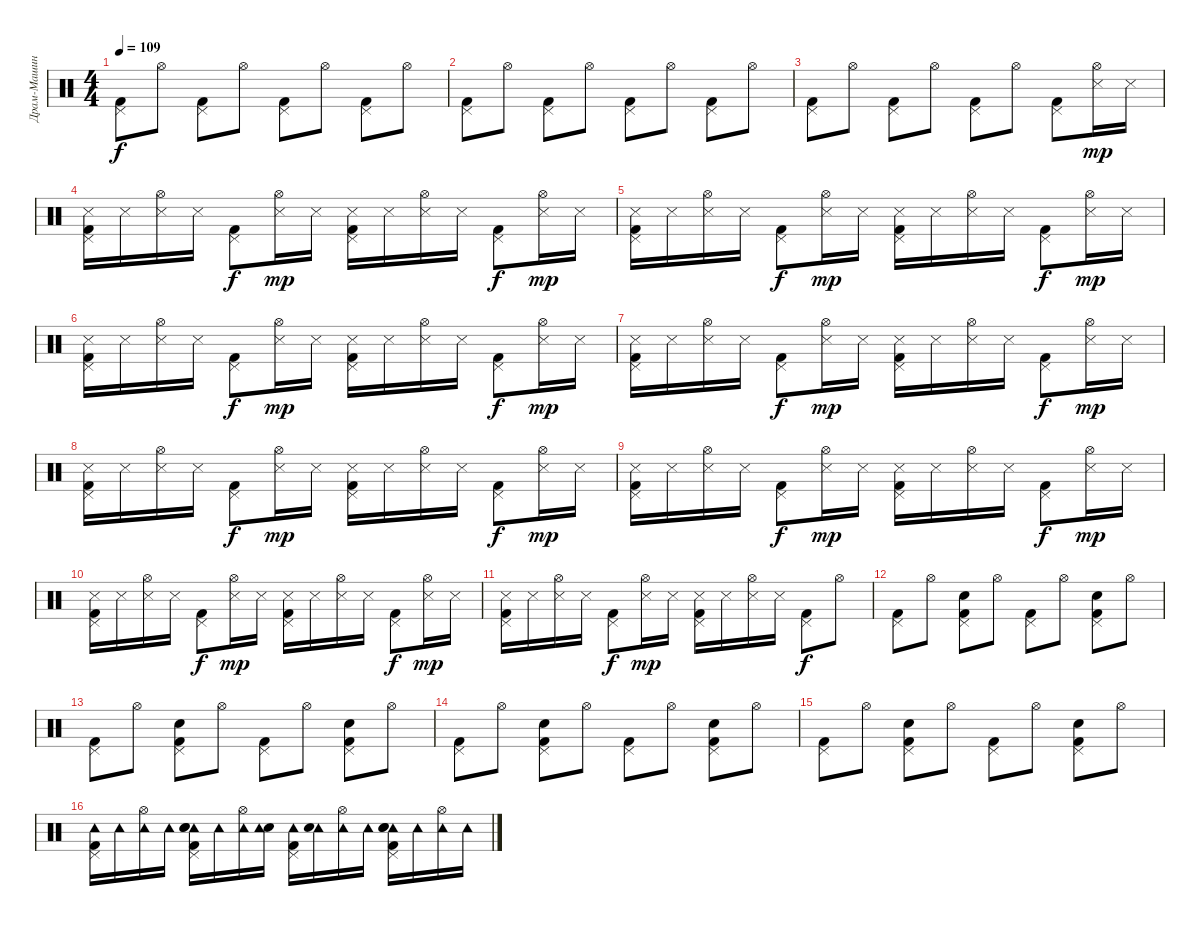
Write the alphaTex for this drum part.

\track ("Драм-Машина" "Драм-Машин") {instrument percussion}
\staff {score}
\articulation defaults
\ts (4 4)
\tempo 109
\clef neutral
\ks c
("Kick (hit) 2" "Pedal Hi-Hat (hit)").8{dy f} "Hi-Hat (open)".8 ("Pedal Hi-Hat (hit)" "Kick (hit) 2").8 "Hi-Hat (open)".8 ("Pedal Hi-Hat (hit)" "Kick (hit) 2").8 "Hi-Hat (open)".8 ("Pedal Hi-Hat (hit)" "Kick (hit) 2").8 "Hi-Hat (open)".8 |
("Kick (hit) 2" "Pedal Hi-Hat (hit)").8 "Hi-Hat (open)".8 ("Kick (hit) 2" "Pedal Hi-Hat (hit)").8 "Hi-Hat (open)".8 ("Kick (hit) 2" "Pedal Hi-Hat (hit)").8 "Hi-Hat (open)".8 ("Kick (hit) 2" "Pedal Hi-Hat (hit)").8 "Hi-Hat (open)".8 |
("Pedal Hi-Hat (hit)" "Kick (hit) 2").8 "Hi-Hat (open)".8 ("Pedal Hi-Hat (hit)" "Kick (hit) 2").8 "Hi-Hat (open)".8 ("Pedal Hi-Hat (hit)" "Kick (hit) 2").8 "Hi-Hat (open)".8 ("Pedal Hi-Hat (hit)" "Kick (hit) 2").8 ("Hi-Hat (open)" "Snare (side stick) 3").16{dy mp} "Snare (side stick) 3".16 |
("Snare (side stick) 3" "Pedal Hi-Hat (hit)" "Kick (hit) 2").16 "Snare (side stick) 3".16 ("Snare (side stick) 3" "Hi-Hat (open)").16 "Snare (side stick) 3".16 ("Pedal Hi-Hat (hit)" "Kick (hit) 2").8{dy f} ("Snare (side stick) 3" "Hi-Hat (open)").16{dy mp} "Snare (side stick) 3".16 ("Pedal Hi-Hat (hit)" "Kick (hit) 2" "Snare (side stick) 3").16 "Snare (side stick) 3".16 ("Hi-Hat (open)" "Snare (side stick) 3").16 "Snare (side stick) 3".16 ("Pedal Hi-Hat (hit)" "Kick (hit) 2").8{dy f} ("Snare (side stick) 3" "Hi-Hat (open)").16{dy mp} "Snare (side stick) 3".16 |
("Snare (side stick) 3" "Pedal Hi-Hat (hit)" "Kick (hit) 2").16 "Snare (side stick) 3".16 ("Hi-Hat (open)" "Snare (side stick) 3").16 "Snare (side stick) 3".16 ("Pedal Hi-Hat (hit)" "Kick (hit) 2").8{dy f} ("Hi-Hat (open)" "Snare (side stick) 3").16{dy mp} "Snare (side stick) 3".16 ("Pedal Hi-Hat (hit)" "Snare (side stick) 3" "Kick (hit) 2").16 "Snare (side stick) 3".16 ("Snare (side stick) 3" "Hi-Hat (open)").16 "Snare (side stick) 3".16 ("Kick (hit) 2" "Pedal Hi-Hat (hit)").8{dy f} ("Snare (side stick) 3" "Hi-Hat (open)").16{dy mp} "Snare (side stick) 3".16 |
("Kick (hit) 2" "Pedal Hi-Hat (hit)" "Snare (side stick) 3").16 "Snare (side stick) 3".16 ("Hi-Hat (open)" "Snare (side stick) 3").16 "Snare (side stick) 3".16 ("Pedal Hi-Hat (hit)" "Kick (hit) 2").8{dy f} ("Hi-Hat (open)" "Snare (side stick) 3").16{dy mp} "Snare (side stick) 3".16 ("Kick (hit) 2" "Snare (side stick) 3" "Pedal Hi-Hat (hit)").16 "Snare (side stick) 3".16 ("Hi-Hat (open)" "Snare (side stick) 3").16 "Snare (side stick) 3".16 ("Kick (hit) 2" "Pedal Hi-Hat (hit)").8{dy f} ("Hi-Hat (open)" "Snare (side stick) 3").16{dy mp} "Snare (side stick) 3".16 |
("Kick (hit) 2" "Snare (side stick) 3" "Pedal Hi-Hat (hit)").16 "Snare (side stick) 3".16 ("Snare (side stick) 3" "Hi-Hat (open)").16 "Snare (side stick) 3".16 ("Pedal Hi-Hat (hit)" "Kick (hit) 2").8{dy f} ("Hi-Hat (open)" "Snare (side stick) 3").16{dy mp} "Snare (side stick) 3".16 ("Snare (side stick) 3" "Kick (hit) 2" "Pedal Hi-Hat (hit)").16 "Snare (side stick) 3".16 ("Snare (side stick) 3" "Hi-Hat (open)").16 "Snare (side stick) 3".16 ("Pedal Hi-Hat (hit)" "Kick (hit) 2").8{dy f} ("Hi-Hat (open)" "Snare (side stick) 3").16{dy mp} "Snare (side stick) 3".16 |
("Snare (side stick) 3" "Pedal Hi-Hat (hit)" "Kick (hit) 2").16 "Snare (side stick) 3".16 ("Hi-Hat (open)" "Snare (side stick) 3").16 "Snare (side stick) 3".16 ("Kick (hit) 2" "Pedal Hi-Hat (hit)").8{dy f} ("Snare (side stick) 3" "Hi-Hat (open)").16{dy mp} "Snare (side stick) 3".16 ("Pedal Hi-Hat (hit)" "Snare (side stick) 3" "Kick (hit) 2").16 "Snare (side stick) 3".16 ("Snare (side stick) 3" "Hi-Hat (open)").16 "Snare (side stick) 3".16 ("Pedal Hi-Hat (hit)" "Kick (hit) 2").8{dy f} ("Hi-Hat (open)" "Snare (side stick) 3").16{dy mp} "Snare (side stick) 3".16 |
("Snare (side stick) 3" "Kick (hit) 2" "Pedal Hi-Hat (hit)").16 "Snare (side stick) 3".16 ("Hi-Hat (open)" "Snare (side stick) 3").16 "Snare (side stick) 3".16 ("Kick (hit) 2" "Pedal Hi-Hat (hit)").8{dy f} ("Hi-Hat (open)" "Snare (side stick) 3").16{dy mp} "Snare (side stick) 3".16 ("Pedal Hi-Hat (hit)" "Snare (side stick) 3" "Kick (hit) 2").16 "Snare (side stick) 3".16 ("Hi-Hat (open)" "Snare (side stick) 3").16 "Snare (side stick) 3".16 ("Pedal Hi-Hat (hit)" "Kick (hit) 2").8{dy f} ("Snare (side stick) 3" "Hi-Hat (open)").16{dy mp} "Snare (side stick) 3".16 |
("Pedal Hi-Hat (hit)" "Kick (hit) 2" "Snare (side stick) 3").16 "Snare (side stick) 3".16 ("Snare (side stick) 3" "Hi-Hat (open)").16 "Snare (side stick) 3".16 ("Pedal Hi-Hat (hit)" "Kick (hit) 2").8{dy f} ("Snare (side stick) 3" "Hi-Hat (open)").16{dy mp} "Snare (side stick) 3".16 ("Pedal Hi-Hat (hit)" "Snare (side stick) 3" "Kick (hit) 2").16 "Snare (side stick) 3".16 ("Snare (side stick) 3" "Hi-Hat (open)").16 "Snare (side stick) 3".16 ("Kick (hit) 2" "Pedal Hi-Hat (hit)").8{dy f} ("Snare (side stick) 3" "Hi-Hat (open)").16{dy mp} "Snare (side stick) 3".16 |
("Snare (side stick) 3" "Kick (hit) 2" "Pedal Hi-Hat (hit)").16 "Snare (side stick) 3".16 ("Hi-Hat (open)" "Snare (side stick) 3").16 "Snare (side stick) 3".16 ("Kick (hit) 2" "Pedal Hi-Hat (hit)").8{dy f} ("Snare (side stick) 3" "Hi-Hat (open)").16{dy mp} "Snare (side stick) 3".16 ("Pedal Hi-Hat (hit)" "Kick (hit) 2" "Snare (side stick) 3").16 "Snare (side stick) 3".16 ("Snare (side stick) 3" "Hi-Hat (open)").16 "Snare (side stick) 3".16 ("Pedal Hi-Hat (hit)" "Kick (hit) 2").8{dy f} "Hi-Hat (open)".8 |
("Kick (hit) 2" "Pedal Hi-Hat (hit)").8 "Hi-Hat (open)".8 ("Kick (hit) 2" "Snare (hit) 2" "Pedal Hi-Hat (hit)").8 "Hi-Hat (open)".8 ("Pedal Hi-Hat (hit)" "Kick (hit) 2").8 "Hi-Hat (open)".8 ("Snare (hit) 2" "Pedal Hi-Hat (hit)" "Kick (hit) 2").8 "Hi-Hat (open)".8 |
("Kick (hit) 2" "Pedal Hi-Hat (hit)").8 "Hi-Hat (open)".8 ("Snare (hit) 2" "Kick (hit) 2" "Pedal Hi-Hat (hit)").8 "Hi-Hat (open)".8 ("Pedal Hi-Hat (hit)" "Kick (hit) 2").8 "Hi-Hat (open)".8 ("Kick (hit) 2" "Snare (hit) 2" "Pedal Hi-Hat (hit)").8 "Hi-Hat (open)".8 |
("Pedal Hi-Hat (hit)" "Kick (hit) 2").8 "Hi-Hat (open)".8 ("Pedal Hi-Hat (hit)" "Kick (hit) 2" "Snare (hit) 2").8 "Hi-Hat (open)".8 ("Kick (hit) 2" "Pedal Hi-Hat (hit)").8 "Hi-Hat (open)".8 ("Snare (hit) 2" "Pedal Hi-Hat (hit)" "Kick (hit) 2").8 "Hi-Hat (open)".8 |
("Pedal Hi-Hat (hit)" "Kick (hit) 2").8 "Hi-Hat (open)".8 ("Kick (hit) 2" "Pedal Hi-Hat (hit)" "Snare (hit) 2").8 "Hi-Hat (open)".8 ("Kick (hit) 2" "Pedal Hi-Hat (hit)").8 "Hi-Hat (open)".8 ("Pedal Hi-Hat (hit)" "Kick (hit) 2" "Snare (hit) 2").8 "Hi-Hat (open)".8 |
("Kick (hit) 2" "Pedal Hi-Hat (hit)" "Tambourine (hit)").16 "Tambourine (hit)".16 ("Hi-Hat (open)" "Tambourine (hit)").16 "Tambourine (hit)".16 ("Kick (hit) 2" "Pedal Hi-Hat (hit)" "Tambourine (hit)" "Electric Snare (hit)" "Snare (hit) 2").16 "Tambourine (hit)".16 ("Hi-Hat (open)" "Tambourine (hit)").16 ("Electric Snare (hit)" "Tambourine (hit)").16 ("Pedal Hi-Hat (hit)" "Tambourine (hit)" "Kick (hit) 2").16 ("Tambourine (hit)" "Electric Snare (hit)").16 ("Tambourine (hit)" "Hi-Hat (open)").16 "Tambourine (hit)".16 ("Kick (hit) 2" "Tambourine (hit)" "Electric Snare (hit)" "Pedal Hi-Hat (hit)" "Snare (hit) 2").16 "Tambourine (hit)".16 ("Tambourine (hit)" "Hi-Hat (open)").16 "Tambourine (hit)".16
